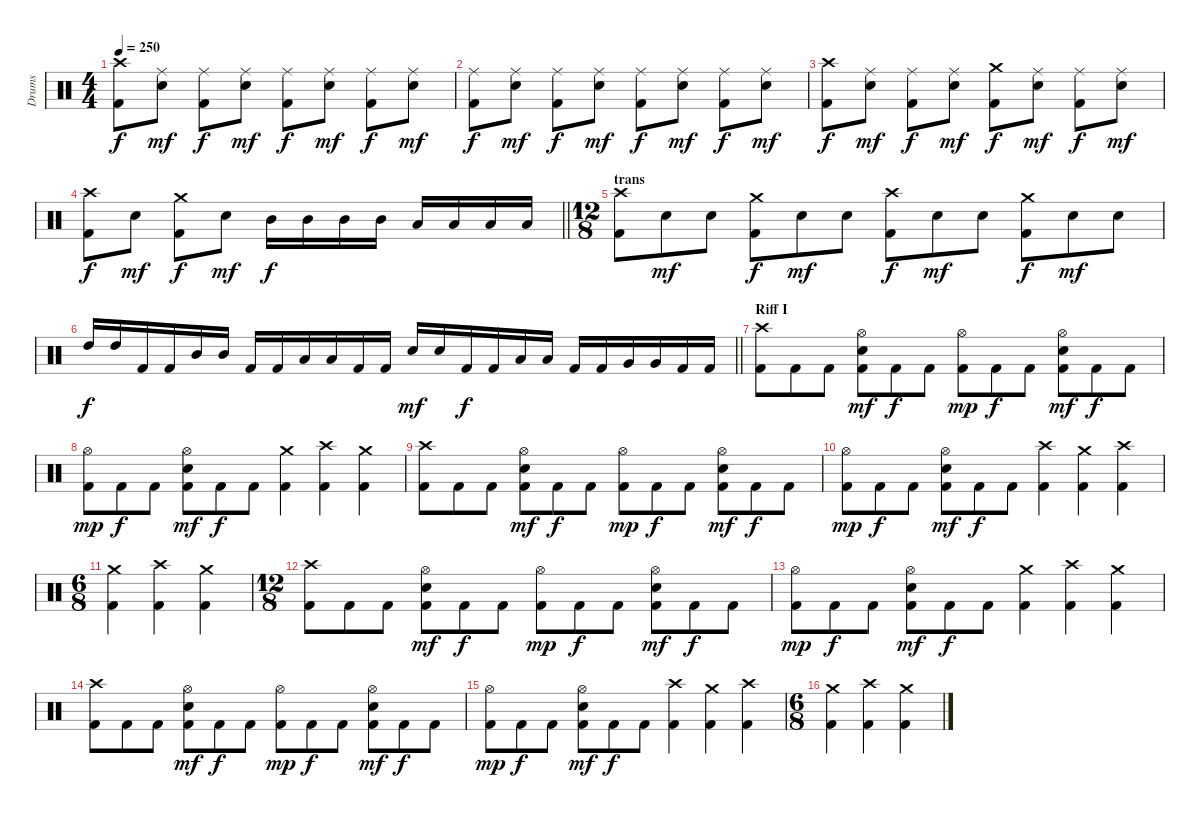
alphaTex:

\track ("Drums" "Drums") {instrument percussion}
\staff {score}
\articulation defaults
\ts (4 4)
\tempo 250
\clef neutral
\ks c
("Crash high (hit)" "Kick (hit) 2").8{dy f} ("Ride (middle)" "Electric Snare (hit)").8{dy mf} ("Ride (middle)" "Kick (hit) 2").8{dy f} ("Ride (middle)" "Electric Snare (hit)").8{dy mf} ("Ride (middle)" "Kick (hit) 2").8{dy f} ("Ride (middle)" "Electric Snare (hit)").8{dy mf} ("Ride (middle)" "Kick (hit) 2").8{dy f} ("Ride (middle)" "Electric Snare (hit)").8{dy mf} |
("Ride (middle)" "Kick (hit) 2").8{dy f} ("Ride (middle)" "Electric Snare (hit)").8{dy mf} ("Ride (middle)" "Kick (hit) 2").8{dy f} ("Ride (middle)" "Electric Snare (hit)").8{dy mf} ("Ride (middle)" "Kick (hit) 2").8{dy f} ("Ride (middle)" "Electric Snare (hit)").8{dy mf} ("Ride (middle)" "Kick (hit) 2").8{dy f} ("Ride (middle)" "Electric Snare (hit)").8{dy mf} |
("Crash high (hit)" "Kick (hit) 2").8{dy f} ("Ride (middle)" "Electric Snare (hit)").8{dy mf} ("Ride (middle)" "Kick (hit) 2").8{dy f} ("Ride (middle)" "Electric Snare (hit)").8{dy mf} ("Crash medium (hit)" "Kick (hit) 2").8{dy f} ("Ride (middle)" "Electric Snare (hit)").8{dy mf} ("Ride (middle)" "Kick (hit) 2").8{dy f} ("Ride (middle)" "Electric Snare (hit)").8{dy mf} |
\barLineRight lightlight
("Crash high (hit)" "Kick (hit) 2").8{dy f} "Electric Snare (hit)".8{dy mf} ("Crash medium (hit)" "Kick (hit) 2").8{dy f} "Electric Snare (hit)".8{dy mf} "Mid Tom (hit)".16{dy f} "Mid Tom (hit)".16 "Mid Tom (hit)".16 "Mid Tom (hit)".16 "Low Tom (hit)".16 "Low Tom (hit)".16 "Low Tom (hit)".16 "Low Tom (hit)".16 |
\ts (12 8)
\section ("" "trans")
("Crash high (hit)" "Kick (hit) 2").8 "Electric Snare (hit)".8{dy mf} "Electric Snare (hit)".8 ("Crash medium (hit)" "Kick (hit) 2").8{dy f} "Electric Snare (hit)".8{dy mf} "Electric Snare (hit)".8 ("Crash high (hit)" "Kick (hit) 2").8{dy f} "Electric Snare (hit)".8{dy mf} "Electric Snare (hit)".8 ("Crash medium (hit)" "Kick (hit) 2").8{dy f} "Electric Snare (hit)".8{dy mf} "Electric Snare (hit)".8 |
\barLineRight lightlight "High Tom (hit)".16{dy f} "High Tom (hit)".16 "Kick (hit) 2".16 "Kick (hit) 2".16 "Mid Tom (hit)".16 "Mid Tom (hit)".16 "Kick (hit) 2".16 "Kick (hit) 2".16 "Low Tom (hit)".16 "Low Tom (hit)".16 "Kick (hit) 2".16 "Kick (hit) 2".16 "Electric Snare (hit)".16{dy mf} "Electric Snare (hit)".16 "Kick (hit) 2".16{dy f} "Kick (hit) 2".16 "Low Tom (hit)".16 "Low Tom (hit)".16 "Kick (hit) 2".16 "Kick (hit) 2".16 "Very Low Tom (hit)".16 "Very Low Tom (hit)".16 "Kick (hit) 2".16 "Kick (hit) 2".16
|
\section ("" "Riff I")
("Crash high (hit)" "Kick (hit) 2").8 "Kick (hit) 2".8 "Kick (hit) 2".8 ("Hi-Hat (open)" "Electric Snare (hit)" "Kick (hit) 2").8{dy mf} "Kick (hit) 2".8{dy f} "Kick (hit) 2".8 ("Hi-Hat (open)" "Kick (hit) 2").8{dy mp} "Kick (hit) 2".8{dy f} "Kick (hit) 2".8 ("Hi-Hat (open)" "Electric Snare (hit)" "Kick (hit) 2").8{dy mf} "Kick (hit) 2".8{dy f} "Kick (hit) 2".8 |
("Hi-Hat (open)" "Kick (hit) 2").8{dy mp} "Kick (hit) 2".8{dy f} "Kick (hit) 2".8 ("Hi-Hat (open)" "Electric Snare (hit)" "Kick (hit) 2").8{dy mf} "Kick (hit) 2".8{dy f} "Kick (hit) 2".8 ("Crash medium (hit)" "Kick (hit) 2").4 ("Crash high (hit)" "Kick (hit) 2").4 ("Crash medium (hit)" "Kick (hit) 2").4 |
("Crash high (hit)" "Kick (hit) 2").8 "Kick (hit) 2".8 "Kick (hit) 2".8 ("Hi-Hat (open)" "Electric Snare (hit)" "Kick (hit) 2").8{dy mf} "Kick (hit) 2".8{dy f} "Kick (hit) 2".8 ("Hi-Hat (open)" "Kick (hit) 2").8{dy mp} "Kick (hit) 2".8{dy f} "Kick (hit) 2".8 ("Hi-Hat (open)" "Electric Snare (hit)" "Kick (hit) 2").8{dy mf} "Kick (hit) 2".8{dy f} "Kick (hit) 2".8 |
("Hi-Hat (open)" "Kick (hit) 2").8{dy mp} "Kick (hit) 2".8{dy f} "Kick (hit) 2".8 ("Hi-Hat (open)" "Electric Snare (hit)" "Kick (hit) 2").8{dy mf} "Kick (hit) 2".8{dy f} "Kick (hit) 2".8 ("Crash high (hit)" "Kick (hit) 2").4 ("Crash medium (hit)" "Kick (hit) 2").4 ("Crash high (hit)" "Kick (hit) 2").4 |
\ts (6 8)
("Crash medium (hit)" "Kick (hit) 2").4 ("Crash high (hit)" "Kick (hit) 2").4 ("Crash medium (hit)" "Kick (hit) 2").4 |
\ts (12 8)
("Crash high (hit)" "Kick (hit) 2").8 "Kick (hit) 2".8 "Kick (hit) 2".8 ("Hi-Hat (open)" "Electric Snare (hit)" "Kick (hit) 2").8{dy mf} "Kick (hit) 2".8{dy f} "Kick (hit) 2".8 ("Hi-Hat (open)" "Kick (hit) 2").8{dy mp} "Kick (hit) 2".8{dy f} "Kick (hit) 2".8 ("Hi-Hat (open)" "Electric Snare (hit)" "Kick (hit) 2").8{dy mf} "Kick (hit) 2".8{dy f} "Kick (hit) 2".8 |
("Hi-Hat (open)" "Kick (hit) 2").8{dy mp} "Kick (hit) 2".8{dy f} "Kick (hit) 2".8 ("Hi-Hat (open)" "Electric Snare (hit)" "Kick (hit) 2").8{dy mf} "Kick (hit) 2".8{dy f} "Kick (hit) 2".8 ("Crash medium (hit)" "Kick (hit) 2").4 ("Crash high (hit)" "Kick (hit) 2").4 ("Crash medium (hit)" "Kick (hit) 2").4 |
("Crash high (hit)" "Kick (hit) 2").8 "Kick (hit) 2".8 "Kick (hit) 2".8 ("Hi-Hat (open)" "Electric Snare (hit)" "Kick (hit) 2").8{dy mf} "Kick (hit) 2".8{dy f} "Kick (hit) 2".8 ("Hi-Hat (open)" "Kick (hit) 2").8{dy mp} "Kick (hit) 2".8{dy f} "Kick (hit) 2".8 ("Hi-Hat (open)" "Electric Snare (hit)" "Kick (hit) 2").8{dy mf} "Kick (hit) 2".8{dy f} "Kick (hit) 2".8 |
("Hi-Hat (open)" "Kick (hit) 2").8{dy mp} "Kick (hit) 2".8{dy f} "Kick (hit) 2".8 ("Hi-Hat (open)" "Electric Snare (hit)" "Kick (hit) 2").8{dy mf} "Kick (hit) 2".8{dy f} "Kick (hit) 2".8 ("Crash high (hit)" "Kick (hit) 2").4 ("Crash medium (hit)" "Kick (hit) 2").4 ("Crash high (hit)" "Kick (hit) 2").4 |
\ts (6 8)
("Crash medium (hit)" "Kick (hit) 2").4 ("Crash high (hit)" "Kick (hit) 2").4 ("Crash medium (hit)" "Kick (hit) 2").4
